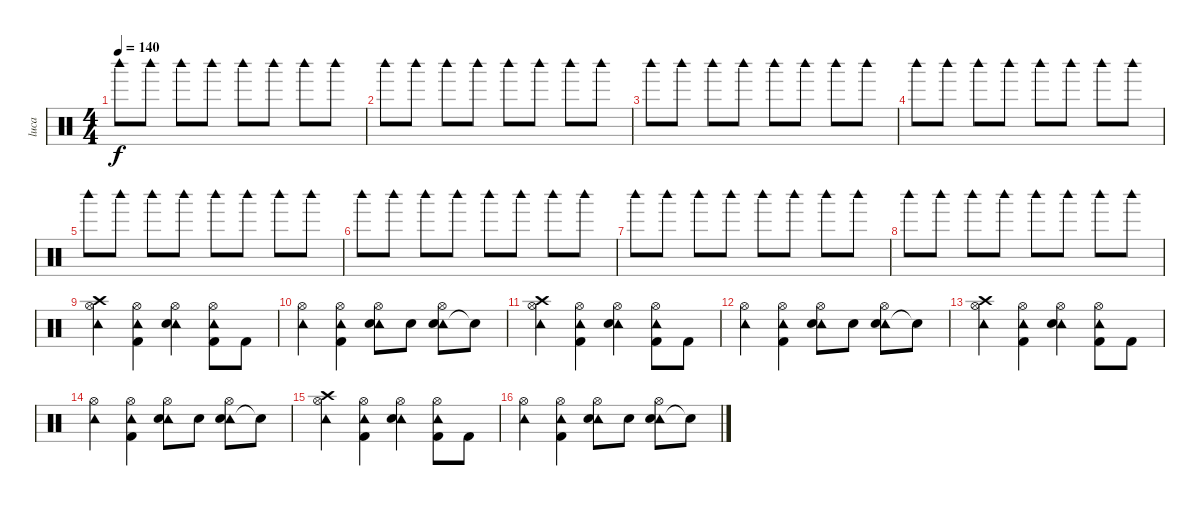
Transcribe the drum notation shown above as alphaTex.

\track ("luca" "luca") {instrument percussion}
\staff {score}
\articulation defaults
\ts (4 4)
\tempo 140
\clef neutral
\ks c "Woodblock high (hit)".8{dy f} "Woodblock high (hit)".8 "Woodblock high (hit)".8 "Woodblock high (hit)".8 "Woodblock high (hit)".8 "Woodblock high (hit)".8 "Woodblock high (hit)".8 "Woodblock high (hit)".8
|
"Woodblock high (hit)".8 "Woodblock high (hit)".8 "Woodblock high (hit)".8 "Woodblock high (hit)".8 "Woodblock high (hit)".8 "Woodblock high (hit)".8 "Woodblock high (hit)".8 "Woodblock high (hit)".8 |
"Woodblock high (hit)".8 "Woodblock high (hit)".8 "Woodblock high (hit)".8 "Woodblock high (hit)".8 "Woodblock high (hit)".8 "Woodblock high (hit)".8 "Woodblock high (hit)".8 "Woodblock high (hit)".8 |
"Woodblock high (hit)".8 "Woodblock high (hit)".8 "Woodblock high (hit)".8 "Woodblock high (hit)".8 "Woodblock high (hit)".8 "Woodblock high (hit)".8 "Woodblock high (hit)".8 "Woodblock high (hit)".8 |
"Woodblock high (hit)".8 "Woodblock high (hit)".8 "Woodblock high (hit)".8 "Woodblock high (hit)".8 "Woodblock high (hit)".8 "Woodblock high (hit)".8 "Woodblock high (hit)".8 "Woodblock high (hit)".8 |
"Woodblock high (hit)".8 "Woodblock high (hit)".8 "Woodblock high (hit)".8 "Woodblock high (hit)".8 "Woodblock high (hit)".8 "Woodblock high (hit)".8 "Woodblock high (hit)".8 "Woodblock high (hit)".8 |
"Woodblock high (hit)".8 "Woodblock high (hit)".8 "Woodblock high (hit)".8 "Woodblock high (hit)".8 "Woodblock high (hit)".8 "Woodblock high (hit)".8 "Woodblock high (hit)".8 "Woodblock high (hit)".8 |
"Woodblock high (hit)".8 "Woodblock high (hit)".8 "Woodblock high (hit)".8 "Woodblock high (hit)".8 "Woodblock high (hit)".8 "Woodblock high (hit)".8 "Woodblock high (hit)".8 "Woodblock high (hit)".8 |
("Crash high (hit)" "Hi-Hat (open)" "Tambourine (hit)").4 ("Tambourine (hit)" "Hi-Hat (open)" "Kick (hit) 2").4 ("Tambourine (hit)" "Hi-Hat (open)" "Snare (hit) 2").4 ("Tambourine (hit)" "Hi-Hat (open)" "Kick (hit) 2").8 "Kick (hit) 2".8 |
("Tambourine (hit)" "Hi-Hat (open)").4 ("Tambourine (hit)" "Hi-Hat (open)" "Kick (hit) 2").4 ("Tambourine (hit)" "Hi-Hat (open)" "Snare (hit) 2").8 "Snare (hit) 2".8 ("Tambourine (hit)" "Hi-Hat (open)" "Snare (hit) 2").8 "Snare (hit)"{t}.8 |
("Crash high (hit)" "Hi-Hat (open)" "Tambourine (hit)").4 ("Tambourine (hit)" "Hi-Hat (open)" "Kick (hit) 2").4 ("Tambourine (hit)" "Hi-Hat (open)" "Snare (hit) 2").4 ("Tambourine (hit)" "Hi-Hat (open)" "Kick (hit) 2").8 "Kick (hit) 2".8 |
("Tambourine (hit)" "Hi-Hat (open)").4 ("Tambourine (hit)" "Hi-Hat (open)" "Kick (hit) 2").4 ("Tambourine (hit)" "Hi-Hat (open)" "Snare (hit) 2").8 "Snare (hit) 2".8 ("Tambourine (hit)" "Hi-Hat (open)" "Snare (hit) 2").8 "Snare (hit)"{t}.8 |
("Crash high (hit)" "Hi-Hat (open)" "Tambourine (hit)").4 ("Tambourine (hit)" "Hi-Hat (open)" "Kick (hit) 2").4 ("Tambourine (hit)" "Hi-Hat (open)" "Snare (hit) 2").4 ("Tambourine (hit)" "Hi-Hat (open)" "Kick (hit) 2").8 "Kick (hit) 2".8 |
("Tambourine (hit)" "Hi-Hat (open)").4 ("Tambourine (hit)" "Hi-Hat (open)" "Kick (hit) 2").4 ("Tambourine (hit)" "Hi-Hat (open)" "Snare (hit) 2").8 "Snare (hit) 2".8 ("Tambourine (hit)" "Hi-Hat (open)" "Snare (hit) 2").8 "Snare (hit)"{t}.8 |
("Crash high (hit)" "Hi-Hat (open)" "Tambourine (hit)").4 ("Tambourine (hit)" "Hi-Hat (open)" "Kick (hit) 2").4 ("Tambourine (hit)" "Hi-Hat (open)" "Snare (hit) 2").4 ("Tambourine (hit)" "Hi-Hat (open)" "Kick (hit) 2").8 "Kick (hit) 2".8 |
("Tambourine (hit)" "Hi-Hat (open)").4 ("Tambourine (hit)" "Hi-Hat (open)" "Kick (hit) 2").4 ("Tambourine (hit)" "Hi-Hat (open)" "Snare (hit) 2").8 "Snare (hit) 2".8 ("Tambourine (hit)" "Hi-Hat (open)" "Snare (hit) 2").8 "Snare (hit)"{t}.8
